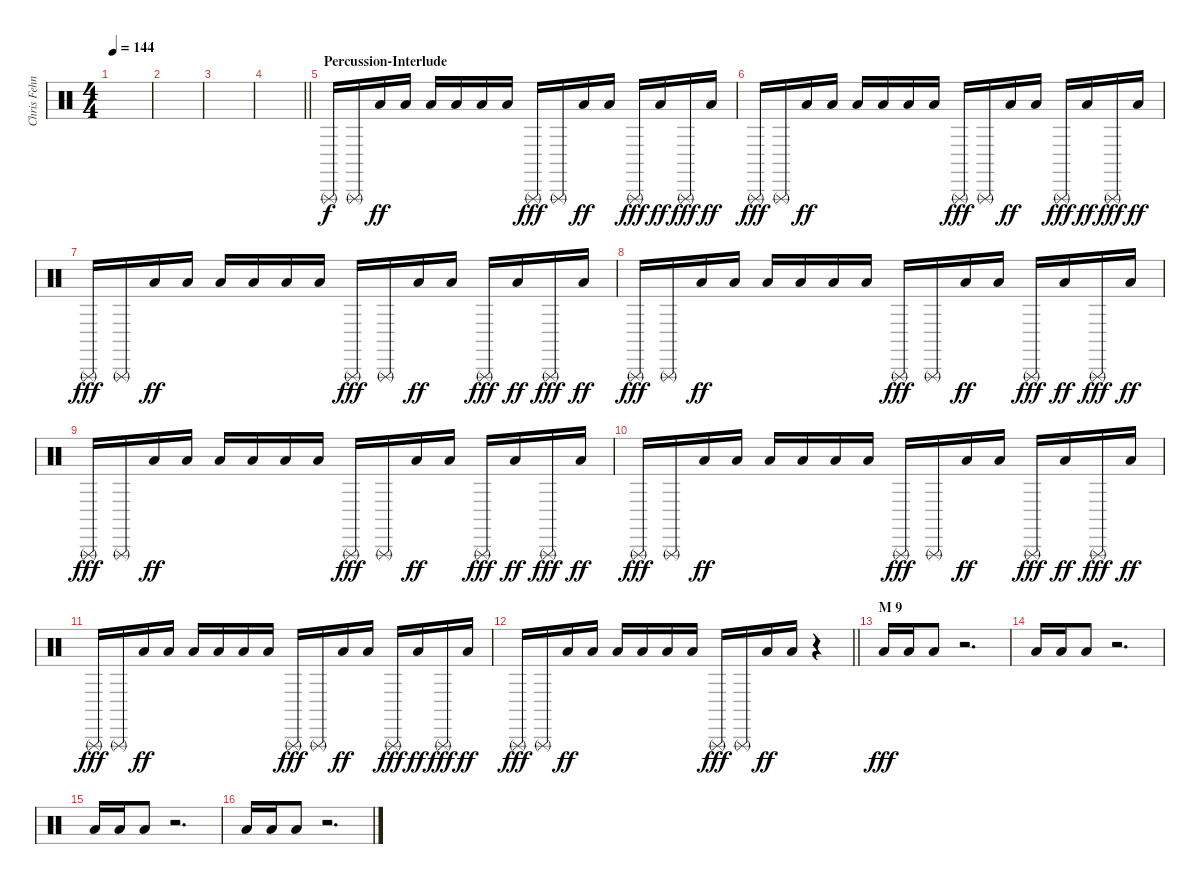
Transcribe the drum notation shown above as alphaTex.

\track ("Chris Fehn" "Chris Fehn") {instrument percussion}
\staff {score}
\articulation defaults
\ts (4 4)
\tempo 144
\clef neutral
\ks c
|
|
|
\barLineRight lightlight
|
\section ("" "Percussion-Interlude")
"Triangle (rnute)".16 "Triangle (rnute)".16 "Low Floor Tom (hit)".16{dy ff} "Low Floor Tom (hit)".16 "Low Floor Tom (hit)".16 "Low Floor Tom (hit)".16 "Low Floor Tom (hit)".16 "Low Floor Tom (hit)".16 "Triangle (rnute)".16{dy fff} "Triangle (rnute)".16 "Low Floor Tom (hit)".16{dy ff} "Low Floor Tom (hit)".16 "Triangle (rnute)".16{dy fff} "Low Floor Tom (hit)".16{dy ff} "Triangle (rnute)".16{dy fff} "Low Floor Tom (hit)".16{dy ff} |
"Triangle (rnute)".16{dy fff} "Triangle (rnute)".16 "Low Floor Tom (hit)".16{dy ff} "Low Floor Tom (hit)".16 "Low Floor Tom (hit)".16 "Low Floor Tom (hit)".16 "Low Floor Tom (hit)".16 "Low Floor Tom (hit)".16 "Triangle (rnute)".16{dy fff} "Triangle (rnute)".16 "Low Floor Tom (hit)".16{dy ff} "Low Floor Tom (hit)".16 "Triangle (rnute)".16{dy fff} "Low Floor Tom (hit)".16{dy ff} "Triangle (rnute)".16{dy fff} "Low Floor Tom (hit)".16{dy ff} |
"Triangle (rnute)".16{dy fff} "Triangle (rnute)".16 "Low Floor Tom (hit)".16{dy ff} "Low Floor Tom (hit)".16 "Low Floor Tom (hit)".16 "Low Floor Tom (hit)".16 "Low Floor Tom (hit)".16 "Low Floor Tom (hit)".16 "Triangle (rnute)".16{dy fff} "Triangle (rnute)".16 "Low Floor Tom (hit)".16{dy ff} "Low Floor Tom (hit)".16 "Triangle (rnute)".16{dy fff} "Low Floor Tom (hit)".16{dy ff} "Triangle (rnute)".16{dy fff} "Low Floor Tom (hit)".16{dy ff} |
"Triangle (rnute)".16{dy fff} "Triangle (rnute)".16 "Low Floor Tom (hit)".16{dy ff} "Low Floor Tom (hit)".16 "Low Floor Tom (hit)".16 "Low Floor Tom (hit)".16 "Low Floor Tom (hit)".16 "Low Floor Tom (hit)".16 "Triangle (rnute)".16{dy fff} "Triangle (rnute)".16 "Low Floor Tom (hit)".16{dy ff} "Low Floor Tom (hit)".16 "Triangle (rnute)".16{dy fff} "Low Floor Tom (hit)".16{dy ff} "Triangle (rnute)".16{dy fff} "Low Floor Tom (hit)".16{dy ff} |
"Triangle (rnute)".16{dy fff} "Triangle (rnute)".16 "Low Floor Tom (hit)".16{dy ff} "Low Floor Tom (hit)".16 "Low Floor Tom (hit)".16 "Low Floor Tom (hit)".16 "Low Floor Tom (hit)".16 "Low Floor Tom (hit)".16 "Triangle (rnute)".16{dy fff} "Triangle (rnute)".16 "Low Floor Tom (hit)".16{dy ff} "Low Floor Tom (hit)".16 "Triangle (rnute)".16{dy fff} "Low Floor Tom (hit)".16{dy ff} "Triangle (rnute)".16{dy fff} "Low Floor Tom (hit)".16{dy ff} |
"Triangle (rnute)".16{dy fff} "Triangle (rnute)".16 "Low Floor Tom (hit)".16{dy ff} "Low Floor Tom (hit)".16 "Low Floor Tom (hit)".16 "Low Floor Tom (hit)".16 "Low Floor Tom (hit)".16 "Low Floor Tom (hit)".16 "Triangle (rnute)".16{dy fff} "Triangle (rnute)".16 "Low Floor Tom (hit)".16{dy ff} "Low Floor Tom (hit)".16 "Triangle (rnute)".16{dy fff} "Low Floor Tom (hit)".16{dy ff} "Triangle (rnute)".16{dy fff} "Low Floor Tom (hit)".16{dy ff} |
"Triangle (rnute)".16{dy fff} "Triangle (rnute)".16 "Low Floor Tom (hit)".16{dy ff} "Low Floor Tom (hit)".16 "Low Floor Tom (hit)".16 "Low Floor Tom (hit)".16 "Low Floor Tom (hit)".16 "Low Floor Tom (hit)".16 "Triangle (rnute)".16{dy fff} "Triangle (rnute)".16 "Low Floor Tom (hit)".16{dy ff} "Low Floor Tom (hit)".16 "Triangle (rnute)".16{dy fff} "Low Floor Tom (hit)".16{dy ff} "Triangle (rnute)".16{dy fff} "Low Floor Tom (hit)".16{dy ff} |
\barLineRight lightlight "Triangle (rnute)".16{dy fff} "Triangle (rnute)".16 "Low Floor Tom (hit)".16{dy ff} "Low Floor Tom (hit)".16 "Low Floor Tom (hit)".16 "Low Floor Tom (hit)".16 "Low Floor Tom (hit)".16 "Low Floor Tom (hit)".16 "Triangle (rnute)".16{dy fff} "Triangle (rnute)".16 "Low Floor Tom (hit)".16{dy ff} "Low Floor Tom (hit)".16
r.4 |
\section ("" "M 9")
"Low Floor Tom (hit)".16{dy fff} "Low Floor Tom (hit)".16 "Low Floor Tom (hit)".8 r.2{d} |
"Low Floor Tom (hit)".16 "Low Floor Tom (hit)".16 "Low Floor Tom (hit)".8 r.2{d} |
"Low Floor Tom (hit)".16 "Low Floor Tom (hit)".16 "Low Floor Tom (hit)".8 r.2{d} |
"Low Floor Tom (hit)".16 "Low Floor Tom (hit)".16 "Low Floor Tom (hit)".8 r.2{d}
